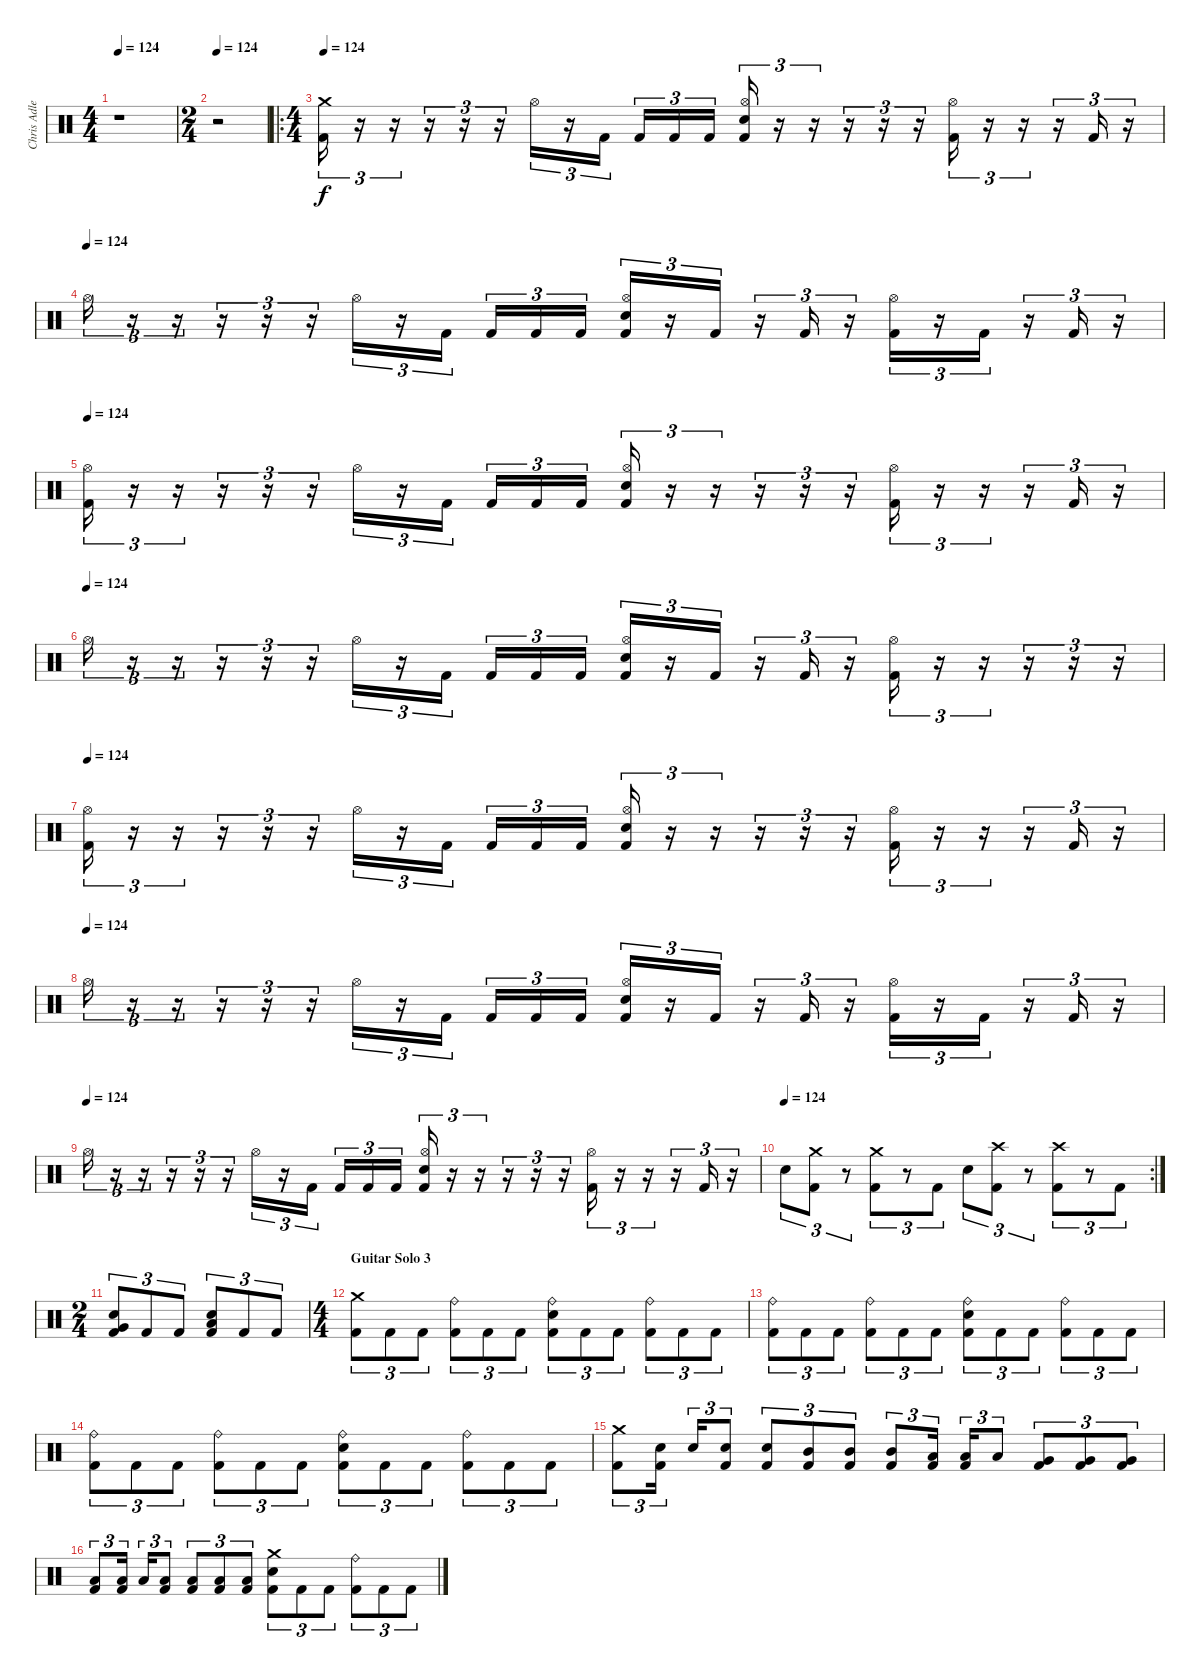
\track ("Chris Adler" "Chris Adle") {instrument percussion}
\staff {score}
\articulation defaults
\ts (4 4)
\tempo 124
\clef neutral
\ks c
r.1{dy f} |
\ts (2 4)
\tempo 124
r.2 |
\ro
\ts (4 4)
\tempo 124
("Crash medium (hit)" "Kick (hit) 2").16{tu (3 2)} r.16{tu (3 2)} r.16{tu (3 2)} r.16{tu (3 2)} r.16{tu (3 2)} r.16{tu (3 2)} "Hi-Hat (open)".16{tu (3 2)} r.16{tu (3 2)} "Kick (hit) 2".16{tu (3 2)} "Kick (hit) 2".16{tu (3 2)} "Kick (hit) 2".16{tu (3 2)} "Kick (hit) 2".16{tu (3 2)} ("Hi-Hat (open)" "Snare (hit) 2" "Kick (hit) 2").16{tu (3 2)} r.16{tu (3 2)} r.16{tu (3 2)} r.16{tu (3 2)} r.16{tu (3 2)} r.16{tu (3 2)} ("Hi-Hat (open)" "Kick (hit) 2").16{tu (3 2)} r.16{tu (3 2)} r.16{tu (3 2)} r.16{tu (3 2)} "Kick (hit) 2".16{tu (3 2)} r.16{tu (3 2)} |
\tempo (124)
"Hi-Hat (open)".16{tu (3 2)} r.16{tu (3 2)} r.16{tu (3 2)} r.16{tu (3 2)} r.16{tu (3 2)} r.16{tu (3 2)} "Hi-Hat (open)".16{tu (3 2)} r.16{tu (3 2)} "Kick (hit) 2".16{tu (3 2)} "Kick (hit) 2".16{tu (3 2)} "Kick (hit) 2".16{tu (3 2)} "Kick (hit) 2".16{tu (3 2)} ("Hi-Hat (open)" "Snare (hit) 2" "Kick (hit) 2").16{tu (3 2)} r.16{tu (3 2)} "Kick (hit) 2".16{tu (3 2)} r.16{tu (3 2)} "Kick (hit) 2".16{tu (3 2)} r.16{tu (3 2)} ("Hi-Hat (open)" "Kick (hit) 2").16{tu (3 2)} r.16{tu (3 2)} "Kick (hit) 2".16{tu (3 2)} r.16{tu (3 2)} "Kick (hit) 2".16{tu (3 2)} r.16{tu (3 2)} |
\tempo 124
("Hi-Hat (open)" "Kick (hit) 2").16{tu (3 2)} r.16{tu (3 2)} r.16{tu (3 2)} r.16{tu (3 2)} r.16{tu (3 2)} r.16{tu (3 2)} "Hi-Hat (open)".16{tu (3 2)} r.16{tu (3 2)} "Kick (hit) 2".16{tu (3 2)} "Kick (hit) 2".16{tu (3 2)} "Kick (hit) 2".16{tu (3 2)} "Kick (hit) 2".16{tu (3 2)} ("Hi-Hat (open)" "Snare (hit) 2" "Kick (hit) 2").16{tu (3 2)} r.16{tu (3 2)} r.16{tu (3 2)} r.16{tu (3 2)} r.16{tu (3 2)} r.16{tu (3 2)} ("Hi-Hat (open)" "Kick (hit) 2").16{tu (3 2)} r.16{tu (3 2)} r.16{tu (3 2)} r.16{tu (3 2)} "Kick (hit) 2".16{tu (3 2)} r.16{tu (3 2)} |
\tempo (124)
"Hi-Hat (open)".16{tu (3 2)} r.16{tu (3 2)} r.16{tu (3 2)} r.16{tu (3 2)} r.16{tu (3 2)} r.16{tu (3 2)} "Hi-Hat (open)".16{tu (3 2)} r.16{tu (3 2)} "Kick (hit) 2".16{tu (3 2)} "Kick (hit) 2".16{tu (3 2)} "Kick (hit) 2".16{tu (3 2)} "Kick (hit) 2".16{tu (3 2)} ("Hi-Hat (open)" "Snare (hit) 2" "Kick (hit) 2").16{tu (3 2)} r.16{tu (3 2)} "Kick (hit) 2".16{tu (3 2)} r.16{tu (3 2)} "Kick (hit) 2".16{tu (3 2)} r.16{tu (3 2)} ("Hi-Hat (open)" "Kick (hit) 2").16{tu (3 2)} r.16{tu (3 2)} r.16{tu (3 2)} r.16{tu (3 2)} r.16{tu (3 2)} r.16{tu (3 2)} |
\tempo 124
("Hi-Hat (open)" "Kick (hit) 2").16{tu (3 2)} r.16{tu (3 2)} r.16{tu (3 2)} r.16{tu (3 2)} r.16{tu (3 2)} r.16{tu (3 2)} "Hi-Hat (open)".16{tu (3 2)} r.16{tu (3 2)} "Kick (hit) 2".16{tu (3 2)} "Kick (hit) 2".16{tu (3 2)} "Kick (hit) 2".16{tu (3 2)} "Kick (hit) 2".16{tu (3 2)} ("Hi-Hat (open)" "Snare (hit) 2" "Kick (hit) 2").16{tu (3 2)} r.16{tu (3 2)} r.16{tu (3 2)} r.16{tu (3 2)} r.16{tu (3 2)} r.16{tu (3 2)} ("Hi-Hat (open)" "Kick (hit) 2").16{tu (3 2)} r.16{tu (3 2)} r.16{tu (3 2)} r.16{tu (3 2)} "Kick (hit) 2".16{tu (3 2)} r.16{tu (3 2)} |
\tempo (124)
"Hi-Hat (open)".16{tu (3 2)} r.16{tu (3 2)} r.16{tu (3 2)} r.16{tu (3 2)} r.16{tu (3 2)} r.16{tu (3 2)} "Hi-Hat (open)".16{tu (3 2)} r.16{tu (3 2)} "Kick (hit) 2".16{tu (3 2)} "Kick (hit) 2".16{tu (3 2)} "Kick (hit) 2".16{tu (3 2)} "Kick (hit) 2".16{tu (3 2)} ("Hi-Hat (open)" "Snare (hit) 2" "Kick (hit) 2").16{tu (3 2)} r.16{tu (3 2)} "Kick (hit) 2".16{tu (3 2)} r.16{tu (3 2)} "Kick (hit) 2".16{tu (3 2)} r.16{tu (3 2)} ("Hi-Hat (open)" "Kick (hit) 2").16{tu (3 2)} r.16{tu (3 2)} "Kick (hit) 2".16{tu (3 2)} r.16{tu (3 2)} "Kick (hit) 2".16{tu (3 2)} r.16{tu (3 2)} |
\tempo (124)
"Hi-Hat (open)".16{tu (3 2)} r.16{tu (3 2)} r.16{tu (3 2)} r.16{tu (3 2)} r.16{tu (3 2)} r.16{tu (3 2)} "Hi-Hat (open)".16{tu (3 2)} r.16{tu (3 2)} "Kick (hit) 2".16{tu (3 2)} "Kick (hit) 2".16{tu (3 2)} "Kick (hit) 2".16{tu (3 2)} "Kick (hit) 2".16{tu (3 2)} ("Hi-Hat (open)" "Snare (hit) 2" "Kick (hit) 2").16{tu (3 2)} r.16{tu (3 2)} r.16{tu (3 2)} r.16{tu (3 2)} r.16{tu (3 2)} r.16{tu (3 2)} ("Hi-Hat (open)" "Kick (hit) 2").16{tu (3 2)} r.16{tu (3 2)} r.16{tu (3 2)} r.16{tu (3 2)} "Kick (hit) 2".16{tu (3 2)} r.16{tu (3 2)} |
\rc 2
\tempo (124)
"Snare (hit) 2".8{tu (3 2)} ("Crash medium (hit)" "Kick (hit) 2").8{tu (3 2)} r.8{tu (3 2)} ("Crash medium (hit)" "Kick (hit) 2").8{tu (3 2)} r.8{tu (3 2)} "Kick (hit) 2".8{tu (3 2)} "Snare (hit) 2".8{tu (3 2)} ("Crash high (hit)" "Kick (hit) 2").8{tu (3 2)} r.8{tu (3 2)} ("Crash high (hit)" "Kick (hit) 2").8{tu (3 2)} r.8{tu (3 2)} "Kick (hit) 2".8{tu (3 2)} |
\ts (2 4)
("Snare (hit) 2" "Very Low Tom (hit)" "Kick (hit) 2").8{tu (3 2)} "Kick (hit) 2".8{tu (3 2)} "Kick (hit) 2".8{tu (3 2)} ("Low Tom (hit)" "Snare (hit) 2" "Kick (hit) 2").8{tu (3 2)} "Kick (hit) 2".8{tu (3 2)} "Kick (hit) 2".8{tu (3 2)} |
\ts (4 4)
\section ("" "Guitar Solo 3")
("Crash medium (hit)" "Kick (hit) 2").8{tu (3 2)} "Kick (hit) 2".8{tu (3 2)} "Kick (hit) 2".8{tu (3 2)} ("Ride (bell)" "Kick (hit) 2").8{tu (3 2)} "Kick (hit) 2".8{tu (3 2)} "Kick (hit) 2".8{tu (3 2)} ("Ride (bell)" "Snare (hit) 2" "Kick (hit) 2").8{tu (3 2)} "Kick (hit) 2".8{tu (3 2)} "Kick (hit) 2".8{tu (3 2)} ("Ride (bell)" "Kick (hit) 2").8{tu (3 2)} "Kick (hit) 2".8{tu (3 2)} "Kick (hit) 2".8{tu (3 2)} |
("Ride (bell)" "Kick (hit) 2").8{tu (3 2)} "Kick (hit) 2".8{tu (3 2)} "Kick (hit) 2".8{tu (3 2)} ("Ride (bell)" "Kick (hit) 2").8{tu (3 2)} "Kick (hit) 2".8{tu (3 2)} "Kick (hit) 2".8{tu (3 2)} ("Ride (bell)" "Snare (hit) 2" "Kick (hit) 2").8{tu (3 2)} "Kick (hit) 2".8{tu (3 2)} "Kick (hit) 2".8{tu (3 2)} ("Ride (bell)" "Kick (hit) 2").8{tu (3 2)} "Kick (hit) 2".8{tu (3 2)} "Kick (hit) 2".8{tu (3 2)} |
("Ride (bell)" "Kick (hit) 2").8{tu (3 2)} "Kick (hit) 2".8{tu (3 2)} "Kick (hit) 2".8{tu (3 2)} ("Ride (bell)" "Kick (hit) 2").8{tu (3 2)} "Kick (hit) 2".8{tu (3 2)} "Kick (hit) 2".8{tu (3 2)} ("Ride (bell)" "Snare (hit) 2" "Kick (hit) 2").8{tu (3 2)} "Kick (hit) 2".8{tu (3 2)} "Kick (hit) 2".8{tu (3 2)} ("Ride (bell)" "Kick (hit) 2").8{tu (3 2)} "Kick (hit) 2".8{tu (3 2)} "Kick (hit) 2".8{tu (3 2)} |
("Crash medium (hit)" "Kick (hit) 2").8{tu (3 2)} ("Snare (hit) 2" "Kick (hit) 2").16{tu (3 2)} "Snare (hit) 2".16{tu (3 2)} ("Snare (hit) 2" "Kick (hit) 2").8{tu (3 2)} ("Snare (hit) 2" "Kick (hit) 2").8{tu (3 2)} ("Mid Tom (hit)" "Kick (hit) 2").8{tu (3 2)} ("Mid Tom (hit)" "Kick (hit) 2").8{tu (3 2)} ("Mid Tom (hit)" "Kick (hit) 2").8{tu (3 2)} ("Low Tom (hit)" "Kick (hit) 2").16{tu (3 2)} ("Low Tom (hit)" "Kick (hit) 2").16{tu (3 2)} "Low Tom (hit)".8{tu (3 2)} ("Very Low Tom (hit)" "Kick (hit) 2").8{tu (3 2)} ("Very Low Tom (hit)" "Kick (hit) 2").8{tu (3 2)} ("Very Low Tom (hit)" "Kick (hit) 2").8{tu (3 2)} |
("Low Floor Tom (hit)" "Kick (hit) 2").8{tu (3 2)} ("Low Floor Tom (hit)" "Kick (hit) 2").16{tu (3 2)} "Low Floor Tom (hit)".16{tu (3 2)} ("Low Floor Tom (hit)" "Kick (hit) 2").8{tu (3 2)} ("Low Floor Tom (hit)" "Kick (hit) 2").8{tu (3 2)} ("Low Floor Tom (hit)" "Kick (hit) 2").8{tu (3 2)} ("Low Floor Tom (hit)" "Kick (hit) 2").8{tu (3 2)} ("Crash medium (hit)" "Snare (hit) 2" "Kick (hit) 2").8{tu (3 2)} "Kick (hit) 2".8{tu (3 2)} "Kick (hit) 2".8{tu (3 2)} ("Ride (bell)" "Kick (hit) 2").8{tu (3 2)} "Kick (hit) 2".8{tu (3 2)} "Kick (hit) 2".8{tu (3 2)}
